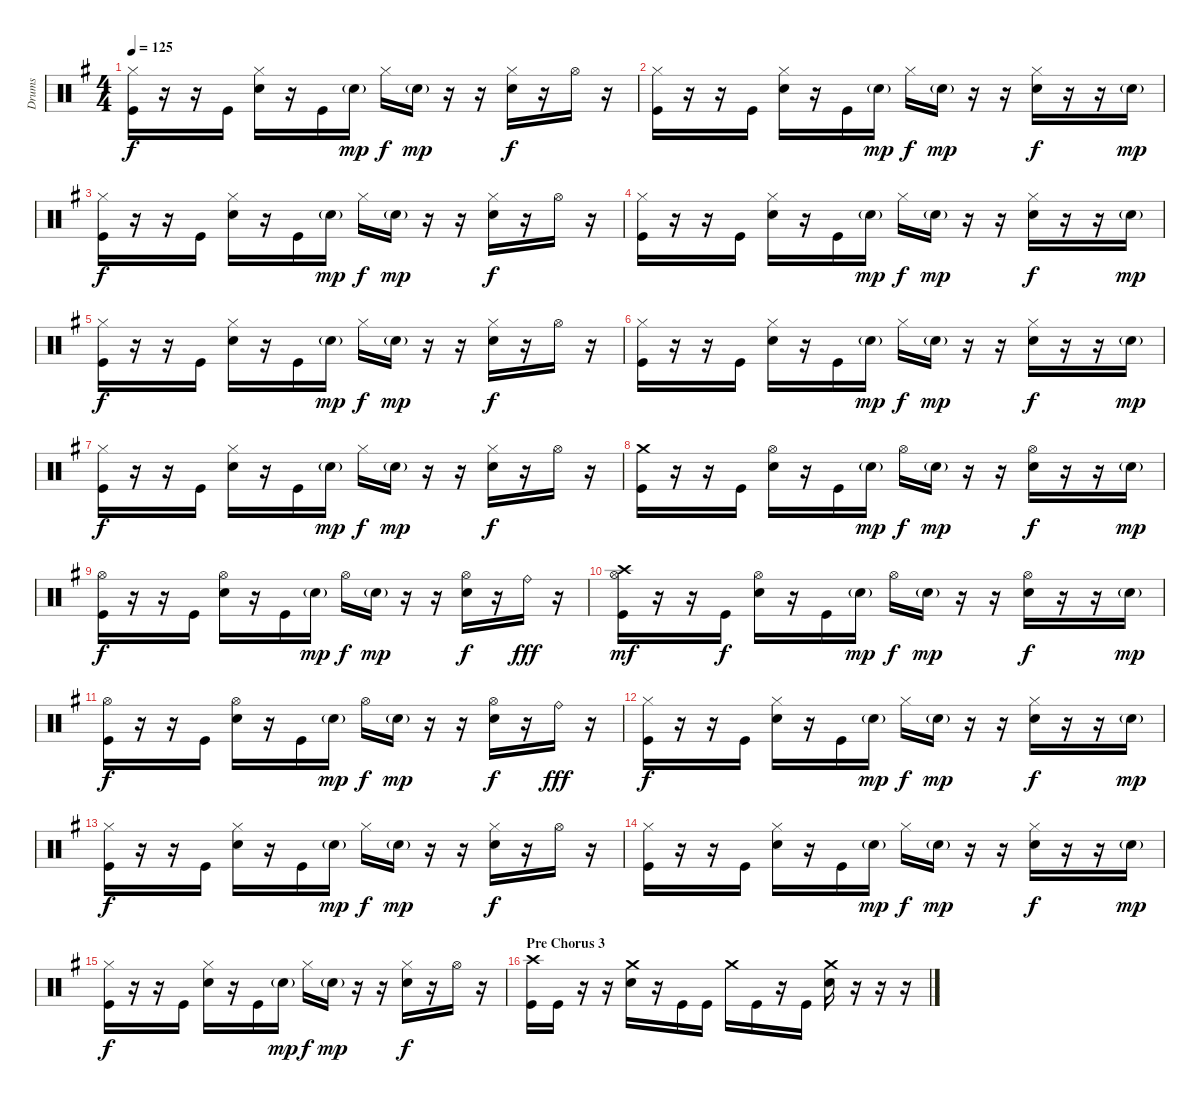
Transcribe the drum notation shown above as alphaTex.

\track ("Drums" "Drums") {instrument percussion}
\staff {score}
\articulation defaults
\ts (4 4)
\tempo 125
\clef neutral
\ks eminor
("Hi-Hat (closed)" "Kick (hit)").16{dy f} r.16 r.16 "Kick (hit)".16 ("Hi-Hat (closed)" "Electric Snare (hit)").16 r.16 "Kick (hit)".16 "Electric Snare (hit)"{g}.16{dy mp} "Hi-Hat (closed)".16{dy f} "Electric Snare (hit)"{g}.16{dy mp} r.16 r.16 ("Hi-Hat (closed)" "Electric Snare (hit)").16{dy f} r.16 "Hi-Hat (open)".16 r.16 |
("Hi-Hat (closed)" "Kick (hit)").16 r.16 r.16 "Kick (hit)".16 ("Hi-Hat (closed)" "Electric Snare (hit)").16 r.16 "Kick (hit)".16 "Electric Snare (hit)"{g}.16{dy mp} "Hi-Hat (closed)".16{dy f} "Electric Snare (hit)"{g}.16{dy mp} r.16 r.16 ("Hi-Hat (closed)" "Electric Snare (hit)").16{dy f} r.16 r.16 "Electric Snare (hit)"{g}.16{dy mp} |
("Hi-Hat (closed)" "Kick (hit)").16{dy f} r.16 r.16 "Kick (hit)".16 ("Hi-Hat (closed)" "Electric Snare (hit)").16 r.16 "Kick (hit)".16 "Electric Snare (hit)"{g}.16{dy mp} "Hi-Hat (closed)".16{dy f} "Electric Snare (hit)"{g}.16{dy mp} r.16 r.16 ("Hi-Hat (closed)" "Electric Snare (hit)").16{dy f} r.16 "Hi-Hat (open)".16 r.16 |
("Hi-Hat (closed)" "Kick (hit)").16 r.16 r.16 "Kick (hit)".16 ("Hi-Hat (closed)" "Electric Snare (hit)").16 r.16 "Kick (hit)".16 "Electric Snare (hit)"{g}.16{dy mp} "Hi-Hat (closed)".16{dy f} "Electric Snare (hit)"{g}.16{dy mp} r.16 r.16 ("Hi-Hat (closed)" "Electric Snare (hit)").16{dy f} r.16 r.16 "Electric Snare (hit)"{g}.16{dy mp} |
("Hi-Hat (closed)" "Kick (hit)").16{dy f} r.16 r.16 "Kick (hit)".16 ("Hi-Hat (closed)" "Electric Snare (hit)").16 r.16 "Kick (hit)".16 "Electric Snare (hit)"{g}.16{dy mp} "Hi-Hat (closed)".16{dy f} "Electric Snare (hit)"{g}.16{dy mp} r.16 r.16 ("Hi-Hat (closed)" "Electric Snare (hit)").16{dy f} r.16 "Hi-Hat (open)".16 r.16 |
("Hi-Hat (closed)" "Kick (hit)").16 r.16 r.16 "Kick (hit)".16 ("Hi-Hat (closed)" "Electric Snare (hit)").16 r.16 "Kick (hit)".16 "Electric Snare (hit)"{g}.16{dy mp} "Hi-Hat (closed)".16{dy f} "Electric Snare (hit)"{g}.16{dy mp} r.16 r.16 ("Hi-Hat (closed)" "Electric Snare (hit)").16{dy f} r.16 r.16 "Electric Snare (hit)"{g}.16{dy mp} |
("Hi-Hat (closed)" "Kick (hit)").16{dy f} r.16 r.16 "Kick (hit)".16 ("Hi-Hat (closed)" "Electric Snare (hit)").16 r.16 "Kick (hit)".16 "Electric Snare (hit)"{g}.16{dy mp} "Hi-Hat (closed)".16{dy f} "Electric Snare (hit)"{g}.16{dy mp} r.16 r.16 ("Hi-Hat (closed)" "Electric Snare (hit)").16{dy f} r.16 "Hi-Hat (open)".16 r.16 |
("Crash medium (hit)" "Kick (hit)").16 r.16 r.16 "Kick (hit)".16 ("Hi-Hat (open)" "Electric Snare (hit)").16 r.16 "Kick (hit)".16 "Electric Snare (hit)"{g}.16{dy mp} "Hi-Hat (open)".16{dy f} "Electric Snare (hit)"{g}.16{dy mp} r.16 r.16 ("Hi-Hat (open)" "Electric Snare (hit)").16{dy f} r.16 r.16 "Electric Snare (hit)"{g}.16{dy mp} |
("Hi-Hat (open)" "Kick (hit)").16{dy f} r.16 r.16 "Kick (hit)".16 ("Hi-Hat (open)" "Electric Snare (hit)").16 r.16 "Kick (hit)".16 "Electric Snare (hit)"{g}.16{dy mp} "Hi-Hat (open)".16{dy f} "Electric Snare (hit)"{g}.16{dy mp} r.16 r.16 ("Hi-Hat (open)" "Electric Snare (hit)").16{dy f} r.16 "Ride (bell)".16{dy fff} r.16 |
("Crash high (hit)" "Hi-Hat (open)" "Kick (hit)").16{dy mf} r.16 r.16 "Kick (hit)".16{dy f} ("Hi-Hat (open)" "Electric Snare (hit)").16 r.16 "Kick (hit)".16 "Electric Snare (hit)"{g}.16{dy mp} "Hi-Hat (open)".16{dy f} "Electric Snare (hit)"{g}.16{dy mp} r.16 r.16 ("Hi-Hat (open)" "Electric Snare (hit)").16{dy f} r.16 r.16 "Electric Snare (hit)"{g}.16{dy mp} |
("Hi-Hat (open)" "Kick (hit)").16{dy f} r.16 r.16 "Kick (hit)".16 ("Hi-Hat (open)" "Electric Snare (hit)").16 r.16 "Kick (hit)".16 "Electric Snare (hit)"{g}.16{dy mp} "Hi-Hat (open)".16{dy f} "Electric Snare (hit)"{g}.16{dy mp} r.16 r.16 ("Hi-Hat (open)" "Electric Snare (hit)").16{dy f} r.16 "Ride (bell)".16{dy fff} r.16 |
("Hi-Hat (closed)" "Kick (hit)").16{dy f} r.16 r.16 "Kick (hit)".16 ("Hi-Hat (closed)" "Electric Snare (hit)").16 r.16 "Kick (hit)".16 "Electric Snare (hit)"{g}.16{dy mp} "Hi-Hat (closed)".16{dy f} "Electric Snare (hit)"{g}.16{dy mp} r.16 r.16 ("Hi-Hat (closed)" "Electric Snare (hit)").16{dy f} r.16 r.16 "Electric Snare (hit)"{g}.16{dy mp} |
("Hi-Hat (closed)" "Kick (hit)").16{dy f} r.16 r.16 "Kick (hit)".16 ("Hi-Hat (closed)" "Electric Snare (hit)").16 r.16 "Kick (hit)".16 "Electric Snare (hit)"{g}.16{dy mp} "Hi-Hat (closed)".16{dy f} "Electric Snare (hit)"{g}.16{dy mp} r.16 r.16 ("Hi-Hat (closed)" "Electric Snare (hit)").16{dy f} r.16 "Hi-Hat (open)".16 r.16 |
("Hi-Hat (closed)" "Kick (hit)").16 r.16 r.16 "Kick (hit)".16 ("Hi-Hat (closed)" "Electric Snare (hit)").16 r.16 "Kick (hit)".16 "Electric Snare (hit)"{g}.16{dy mp} "Hi-Hat (closed)".16{dy f} "Electric Snare (hit)"{g}.16{dy mp} r.16 r.16 ("Hi-Hat (closed)" "Electric Snare (hit)").16{dy f} r.16 r.16 "Electric Snare (hit)"{g}.16{dy mp} |
("Hi-Hat (closed)" "Kick (hit)").16{dy f} r.16 r.16 "Kick (hit)".16 ("Hi-Hat (closed)" "Electric Snare (hit)").16 r.16 "Kick (hit)".16 "Electric Snare (hit)"{g}.16{dy mp} "Hi-Hat (closed)".16{dy f} "Electric Snare (hit)"{g}.16{dy mp} r.16 r.16 ("Hi-Hat (closed)" "Electric Snare (hit)").16{dy f} r.16 "Hi-Hat (open)".16 r.16 |
\section ("" "Pre Chorus 3")
("Crash high (hit)" "Kick (hit)").16 "Kick (hit)".16 r.16 r.16 ("Crash medium (hit)" "Electric Snare (hit)").16 r.16 "Kick (hit)".16 "Kick (hit)".16 "Crash medium (hit)".16 "Kick (hit)".16 r.16 "Kick (hit)".16 ("Crash medium (hit)" "Electric Snare (hit)").16 r.16 r.16 r.16
